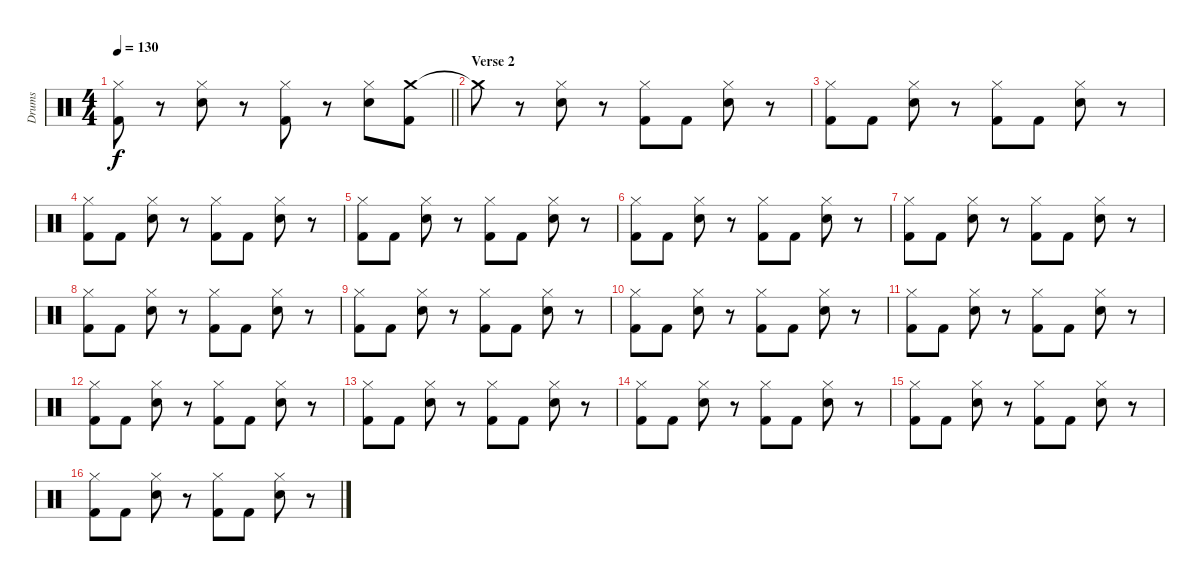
\track ("Drums" "Drums") {instrument percussion}
\staff {score}
\articulation defaults
\ts (4 4)
\tempo 130
\clef neutral
\barLineRight lightlight
\ks c
("Hi-Hat (closed)" "Kick (hit) 2").8{dy f} r.8 ("Hi-Hat (closed)" "Snare (hit) 2").8 r.8 ("Hi-Hat (closed)" "Kick (hit) 2").8 r.8 ("Hi-Hat (closed)" "Snare (hit) 2").8 ("Crash medium (hit)" "Kick (hit) 2").8 |
\section ("" "Verse 2")
"Crash medium (hit)"{t}.8 r.8 ("Hi-Hat (closed)" "Snare (hit) 2").8 r.8 ("Hi-Hat (closed)" "Kick (hit) 2").8 "Kick (hit) 2".8 ("Hi-Hat (closed)" "Snare (hit) 2").8 r.8 |
("Hi-Hat (closed)" "Kick (hit) 2").8 "Kick (hit) 2".8 ("Hi-Hat (closed)" "Snare (hit) 2").8 r.8 ("Hi-Hat (closed)" "Kick (hit) 2").8 "Kick (hit) 2".8 ("Hi-Hat (closed)" "Snare (hit) 2").8 r.8 |
("Hi-Hat (closed)" "Kick (hit) 2").8 "Kick (hit) 2".8 ("Hi-Hat (closed)" "Snare (hit) 2").8 r.8 ("Hi-Hat (closed)" "Kick (hit) 2").8 "Kick (hit) 2".8 ("Hi-Hat (closed)" "Snare (hit) 2").8 r.8 |
("Hi-Hat (closed)" "Kick (hit) 2").8 "Kick (hit) 2".8 ("Hi-Hat (closed)" "Snare (hit) 2").8 r.8 ("Hi-Hat (closed)" "Kick (hit) 2").8 "Kick (hit) 2".8 ("Hi-Hat (closed)" "Snare (hit) 2").8 r.8 |
("Hi-Hat (closed)" "Kick (hit) 2").8 "Kick (hit) 2".8 ("Hi-Hat (closed)" "Snare (hit) 2").8 r.8 ("Hi-Hat (closed)" "Kick (hit) 2").8 "Kick (hit) 2".8 ("Hi-Hat (closed)" "Snare (hit) 2").8 r.8 |
("Hi-Hat (closed)" "Kick (hit) 2").8 "Kick (hit) 2".8 ("Hi-Hat (closed)" "Snare (hit) 2").8 r.8 ("Hi-Hat (closed)" "Kick (hit) 2").8 "Kick (hit) 2".8 ("Hi-Hat (closed)" "Snare (hit) 2").8 r.8 |
("Hi-Hat (closed)" "Kick (hit) 2").8 "Kick (hit) 2".8 ("Hi-Hat (closed)" "Snare (hit) 2").8 r.8 ("Hi-Hat (closed)" "Kick (hit) 2").8 "Kick (hit) 2".8 ("Hi-Hat (closed)" "Snare (hit) 2").8 r.8 |
("Hi-Hat (closed)" "Kick (hit) 2").8 "Kick (hit) 2".8 ("Hi-Hat (closed)" "Snare (hit) 2").8 r.8 ("Hi-Hat (closed)" "Kick (hit) 2").8 "Kick (hit) 2".8 ("Hi-Hat (closed)" "Snare (hit) 2").8 r.8 |
("Hi-Hat (closed)" "Kick (hit) 2").8 "Kick (hit) 2".8 ("Hi-Hat (closed)" "Snare (hit) 2").8 r.8 ("Hi-Hat (closed)" "Kick (hit) 2").8 "Kick (hit) 2".8 ("Hi-Hat (closed)" "Snare (hit) 2").8 r.8 |
("Hi-Hat (closed)" "Kick (hit) 2").8 "Kick (hit) 2".8 ("Hi-Hat (closed)" "Snare (hit) 2").8 r.8 ("Hi-Hat (closed)" "Kick (hit) 2").8 "Kick (hit) 2".8 ("Hi-Hat (closed)" "Snare (hit) 2").8 r.8 |
("Hi-Hat (closed)" "Kick (hit) 2").8 "Kick (hit) 2".8 ("Hi-Hat (closed)" "Snare (hit) 2").8 r.8 ("Hi-Hat (closed)" "Kick (hit) 2").8 "Kick (hit) 2".8 ("Hi-Hat (closed)" "Snare (hit) 2").8 r.8 |
("Hi-Hat (closed)" "Kick (hit) 2").8 "Kick (hit) 2".8 ("Hi-Hat (closed)" "Snare (hit) 2").8 r.8 ("Hi-Hat (closed)" "Kick (hit) 2").8 "Kick (hit) 2".8 ("Hi-Hat (closed)" "Snare (hit) 2").8 r.8 |
("Hi-Hat (closed)" "Kick (hit) 2").8 "Kick (hit) 2".8 ("Hi-Hat (closed)" "Snare (hit) 2").8 r.8 ("Hi-Hat (closed)" "Kick (hit) 2").8 "Kick (hit) 2".8 ("Hi-Hat (closed)" "Snare (hit) 2").8 r.8 |
("Hi-Hat (closed)" "Kick (hit) 2").8 "Kick (hit) 2".8 ("Hi-Hat (closed)" "Snare (hit) 2").8 r.8 ("Hi-Hat (closed)" "Kick (hit) 2").8 "Kick (hit) 2".8 ("Hi-Hat (closed)" "Snare (hit) 2").8 r.8 |
("Hi-Hat (closed)" "Kick (hit) 2").8 "Kick (hit) 2".8 ("Hi-Hat (closed)" "Snare (hit) 2").8 r.8 ("Hi-Hat (closed)" "Kick (hit) 2").8 "Kick (hit) 2".8 ("Hi-Hat (closed)" "Snare (hit) 2").8 r.8
